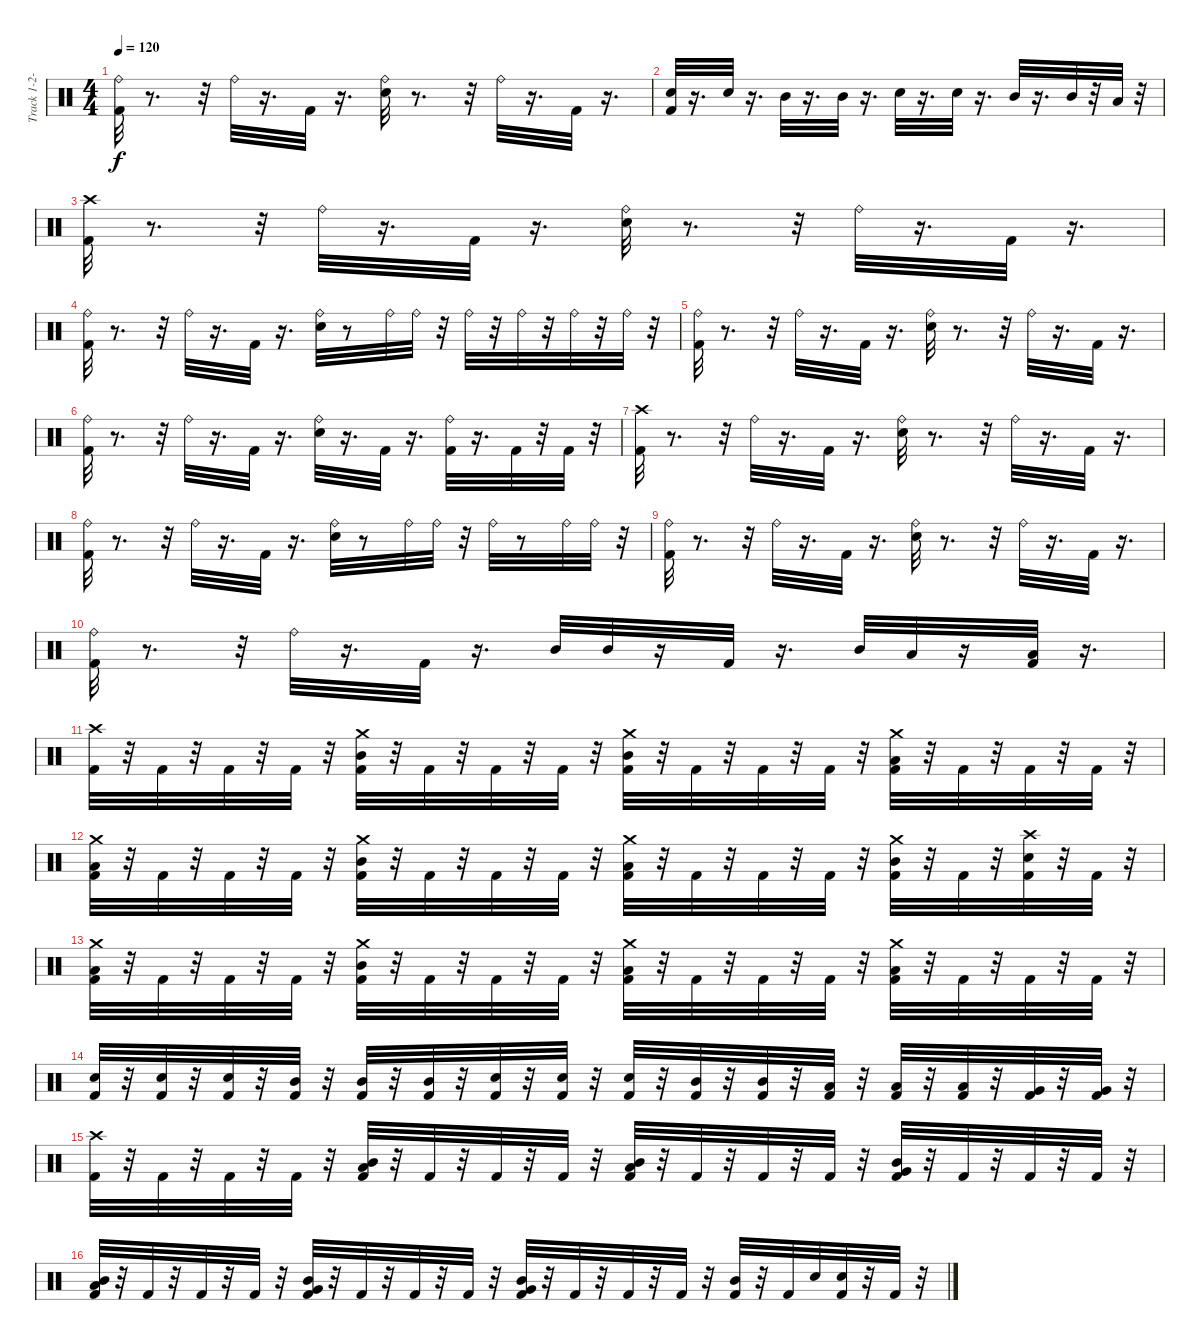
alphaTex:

\track ("Track 1-2-3-4" "Track 1-2-") {instrument percussion}
\staff {score}
\articulation defaults
\ts (4 4)
\tempo 120
\clef neutral
\ks c
("Ride (bell)" "Kick (hit) 2").32{dy f} r.8{d} r.32 "Ride (bell)".32 r.16{d} "Kick (hit) 2".32 r.16{d} ("Ride (bell)" "Electric Snare (hit)").32 r.8{d} r.32 "Ride (bell)".32 r.16{d} "Kick (hit) 2".32 r.16{d} |
("Kick (hit) 2" "Electric Snare (hit)").32 r.16{d} "Electric Snare (hit)".32 r.16{d} "Mid Tom (hit)".32 r.16{d} "Mid Tom (hit)".32 r.16{d} "Electric Snare (hit)".32 r.16{d} "Electric Snare (hit)".32 r.16{d} "Mid Tom (hit)".32 r.16{d} "Mid Tom (hit)".32 r.32 "Low Tom (hit)".32 r.32 |
("Crash high (hit)" "Kick (hit) 2").32 r.8{d} r.32 "Ride (bell)".32 r.16{d} "Kick (hit) 2".32 r.16{d} ("Ride (bell)" "Electric Snare (hit)").32 r.8{d} r.32 "Ride (bell)".32 r.16{d} "Kick (hit) 2".32 r.16{d} |
("Ride (bell)" "Kick (hit) 2").32 r.8{d} r.32 "Ride (bell)".32 r.16{d} "Kick (hit) 2".32 r.16{d} ("Ride (bell)" "Electric Snare (hit)").32 r.8 "Ride (bell)".32 "Ride (bell)".32 r.32 "Ride (bell)".32 r.32 "Ride (bell)".32 r.32 "Ride (bell)".32 r.32 "Ride (bell)".32 r.32 |
("Ride (bell)" "Kick (hit) 2").32 r.8{d} r.32 "Ride (bell)".32 r.16{d} "Kick (hit) 2".32 r.16{d} ("Ride (bell)" "Electric Snare (hit)").32 r.8{d} r.32 "Ride (bell)".32 r.16{d} "Kick (hit) 2".32 r.16{d} |
("Ride (bell)" "Kick (hit) 2").32 r.8{d} r.32 "Ride (bell)".32 r.16{d} "Kick (hit) 2".32 r.16{d} ("Ride (bell)" "Electric Snare (hit)").32 r.16{d} "Kick (hit) 2".32 r.16{d} ("Ride (bell)" "Kick (hit) 2").32 r.16{d} "Kick (hit) 2".32 r.32 "Kick (hit) 2".32 r.32 |
("Crash high (hit)" "Kick (hit) 2").32 r.8{d} r.32 "Ride (bell)".32 r.16{d} "Kick (hit) 2".32 r.16{d} ("Ride (bell)" "Electric Snare (hit)").32 r.8{d} r.32 "Ride (bell)".32 r.16{d} "Kick (hit) 2".32 r.16{d} |
("Ride (bell)" "Kick (hit) 2").32 r.8{d} r.32 "Ride (bell)".32 r.16{d} "Kick (hit) 2".32 r.16{d} ("Ride (bell)" "Electric Snare (hit)").32 r.8 "Ride (bell)".32 "Ride (bell)".32 r.32 "Ride (bell)".32 r.8 "Ride (bell)".32 "Ride (bell)".32 r.32 |
("Ride (bell)" "Kick (hit) 2").32 r.8{d} r.32 "Ride (bell)".32 r.16{d} "Kick (hit) 2".32 r.16{d} ("Ride (bell)" "Electric Snare (hit)").32 r.8{d} r.32 "Ride (bell)".32 r.16{d} "Kick (hit) 2".32 r.16{d} |
("Ride (bell)" "Kick (hit) 2").32 r.8{d} r.32 "Ride (bell)".32 r.16{d} "Kick (hit) 2".32 r.16{d} "Mid Tom (hit)".32 "Mid Tom (hit)".32 r.16 "Kick (hit) 2".32 r.16{d} "Mid Tom (hit)".32 "Low Tom (hit)".32 r.16 ("Kick (hit) 2" "Low Tom (hit)").32 r.16{d} |
("Crash high (hit)" "Kick (hit) 2").32 r.32 "Kick (hit) 2".32 r.32 "Kick (hit) 2".32 r.32 "Kick (hit) 2".32 r.32 ("Crash medium (hit)" "Kick (hit) 2" "Mid Tom (hit)").32 r.32 "Kick (hit) 2".32 r.32 "Kick (hit) 2".32 r.32 "Kick (hit) 2".32 r.32 ("Crash medium (hit)" "Kick (hit) 2" "Mid Tom (hit)").32 r.32 "Kick (hit) 2".32 r.32 "Kick (hit) 2".32 r.32 "Kick (hit) 2".32 r.32 ("Crash medium (hit)" "Kick (hit) 2" "Low Tom (hit)").32 r.32 "Kick (hit) 2".32 r.32 "Kick (hit) 2".32 r.32 "Kick (hit) 2".32 r.32 |
("Crash medium (hit)" "Kick (hit) 2" "Low Tom (hit)").32 r.32 "Kick (hit) 2".32 r.32 "Kick (hit) 2".32 r.32 "Kick (hit) 2".32 r.32 ("Crash medium (hit)" "Kick (hit) 2" "Mid Tom (hit)").32 r.32 "Kick (hit) 2".32 r.32 "Kick (hit) 2".32 r.32 "Kick (hit) 2".32 r.32 ("Crash medium (hit)" "Kick (hit) 2" "Low Tom (hit)").32 r.32 "Kick (hit) 2".32 r.32 "Kick (hit) 2".32 r.32 "Kick (hit) 2".32 r.32 ("Crash medium (hit)" "Kick (hit) 2" "Mid Tom (hit)").32 r.32 "Kick (hit) 2".32 r.32 ("Crash high (hit)" "Kick (hit) 2" "Electric Snare (hit)").32 r.32 "Kick (hit) 2".32 r.32 |
("Crash medium (hit)" "Kick (hit) 2" "Low Tom (hit)").32 r.32 "Kick (hit) 2".32 r.32 "Kick (hit) 2".32 r.32 "Kick (hit) 2".32 r.32 ("Crash medium (hit)" "Kick (hit) 2" "Mid Tom (hit)").32 r.32 "Kick (hit) 2".32 r.32 "Kick (hit) 2".32 r.32 "Kick (hit) 2".32 r.32 ("Crash medium (hit)" "Kick (hit) 2" "Low Tom (hit)").32 r.32 "Kick (hit) 2".32 r.32 "Kick (hit) 2".32 r.32 "Kick (hit) 2".32 r.32 ("Crash medium (hit)" "Kick (hit) 2" "Low Tom (hit)").32 r.32 "Kick (hit) 2".32 r.32 "Kick (hit) 2".32 r.32 "Kick (hit) 2".32 r.32 |
("Kick (hit) 2" "Electric Snare (hit)").32 r.32 ("Kick (hit) 2" "Electric Snare (hit)").32 r.32 ("Kick (hit) 2" "Electric Snare (hit)").32 r.32 ("Kick (hit) 2" "Mid Tom (hit)").32 r.32 ("Kick (hit) 2" "Mid Tom (hit)").32 r.32 ("Kick (hit) 2" "Mid Tom (hit)").32 r.32 ("Kick (hit) 2" "Electric Snare (hit)").32 r.32 ("Kick (hit) 2" "Electric Snare (hit)").32 r.32 ("Kick (hit) 2" "Electric Snare (hit)").32 r.32 ("Kick (hit) 2" "Mid Tom (hit)").32 r.32 ("Kick (hit) 2" "Mid Tom (hit)").32 r.32 ("Kick (hit) 2" "Low Tom (hit)").32 r.32 ("Kick (hit) 2" "Low Tom (hit)").32 r.32 ("Kick (hit) 2" "Low Tom (hit)").32 r.32 ("Kick (hit) 2" "Very Low Tom (hit)").32 r.32 ("Kick (hit) 2" "Very Low Tom (hit)").32 r.32 |
("Crash high (hit)" "Kick (hit) 2").32 r.32 "Kick (hit) 2".32 r.32 "Kick (hit) 2".32 r.32 "Kick (hit) 2".32 r.32 ("Kick (hit) 2" "Mid Tom (hit)" "Low Tom (hit)").32 r.32 "Kick (hit) 2".32 r.32 "Kick (hit) 2".32 r.32 "Kick (hit) 2".32 r.32 ("Kick (hit) 2" "Mid Tom (hit)" "Low Tom (hit)").32 r.32 "Kick (hit) 2".32 r.32 "Kick (hit) 2".32 r.32 "Kick (hit) 2".32 r.32 ("Kick (hit) 2" "Mid Tom (hit)" "Very Low Tom (hit)").32 r.32 "Kick (hit) 2".32 r.32 "Kick (hit) 2".32 r.32 "Kick (hit) 2".32 r.32 |
("Kick (hit) 2" "Low Tom (hit)" "Mid Tom (hit)").32 r.32 "Kick (hit) 2".32 r.32 "Kick (hit) 2".32 r.32 "Kick (hit) 2".32 r.32 ("Kick (hit) 2" "Mid Tom (hit)" "Very Low Tom (hit)").32 r.32 "Kick (hit) 2".32 r.32 "Kick (hit) 2".32 r.32 "Kick (hit) 2".32 r.32 ("Kick (hit) 2" "Mid Tom (hit)" "Very Low Tom (hit)").32 r.32 "Kick (hit) 2".32 r.32 "Kick (hit) 2".32 r.32 "Kick (hit) 2".32 r.32 ("Kick (hit) 2" "Mid Tom (hit)").32 r.32 "Kick (hit) 2".32 "Electric Snare (hit)".32 ("Kick (hit) 2" "Electric Snare (hit)").32 r.32 "Kick (hit) 2".32 r.32
